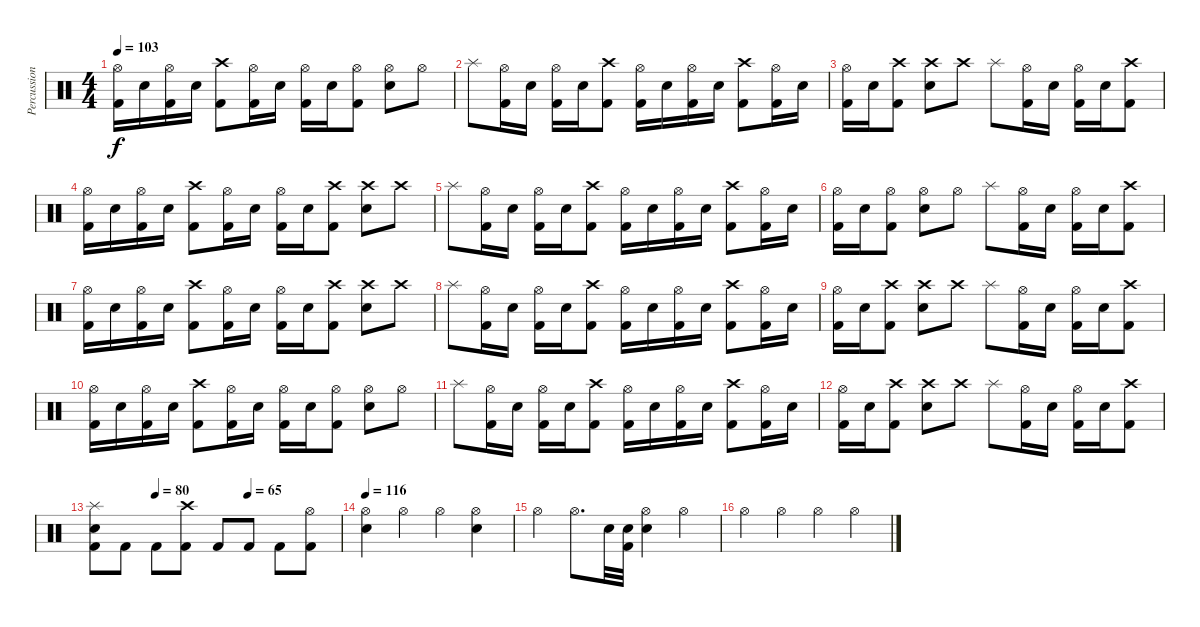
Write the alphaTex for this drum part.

\track ("Percussion" "Percussion") {instrument percussion}
\staff {score}
\articulation defaults
\ts (4 4)
\tempo 103
\clef neutral
\ks c
("Kick (hit) 2" "Hi-Hat (open)").16{dy f} "Snare (hit) 2".16 ("Kick (hit) 2" "Hi-Hat (open)").16 "Snare (hit) 2".16 ("Kick (hit) 2" "Crash high (hit)").8 ("Kick (hit) 2" "Hi-Hat (open)").16 "Snare (hit) 2".16 ("Kick (hit) 2" "Hi-Hat (open)").16 "Snare (hit) 2".16 ("Kick (hit) 2" "Hi-Hat (open)").8 ("Snare (hit) 2" "Hi-Hat (open)").8 "Hi-Hat (open)".8 |
"Splash (hit)".8 ("Kick (hit) 2" "Hi-Hat (open)").16 "Snare (hit) 2".16 ("Kick (hit) 2" "Hi-Hat (open)").16 "Snare (hit) 2".16 ("Kick (hit) 2" "Crash high (hit)").8 ("Kick (hit) 2" "Hi-Hat (open)").16 "Snare (hit) 2".16 ("Kick (hit) 2" "Hi-Hat (open)").16 "Snare (hit) 2".16 ("Kick (hit) 2" "Crash high (hit)").8 ("Kick (hit) 2" "Hi-Hat (open)").16 "Snare (hit) 2".16 |
("Kick (hit) 2" "Hi-Hat (open)").16 "Snare (hit) 2".16 ("Kick (hit) 2" "Crash high (hit)").8 ("Snare (hit) 2" "Crash high (hit)").8 "Crash high (hit)".8 "Splash (hit)".8 ("Kick (hit) 2" "Hi-Hat (open)").16 "Snare (hit) 2".16 ("Kick (hit) 2" "Hi-Hat (open)").16 "Snare (hit) 2".16 ("Kick (hit) 2" "Crash high (hit)").8 |
("Kick (hit) 2" "Hi-Hat (open)").16 "Snare (hit) 2".16 ("Kick (hit) 2" "Hi-Hat (open)").16 "Snare (hit) 2".16 ("Kick (hit) 2" "Crash high (hit)").8 ("Kick (hit) 2" "Hi-Hat (open)").16 "Snare (hit) 2".16 ("Kick (hit) 2" "Hi-Hat (open)").16 "Snare (hit) 2".16 ("Kick (hit) 2" "Crash high (hit)").8 ("Snare (hit) 2" "Crash high (hit)").8 "Crash high (hit)".8 |
"Splash (hit)".8 ("Kick (hit) 2" "Hi-Hat (open)").16 "Snare (hit) 2".16 ("Kick (hit) 2" "Hi-Hat (open)").16 "Snare (hit) 2".16 ("Kick (hit) 2" "Crash high (hit)").8 ("Kick (hit) 2" "Hi-Hat (open)").16 "Snare (hit) 2".16 ("Kick (hit) 2" "Hi-Hat (open)").16 "Snare (hit) 2".16 ("Kick (hit) 2" "Crash high (hit)").8 ("Kick (hit) 2" "Hi-Hat (open)").16 "Snare (hit) 2".16 |
("Kick (hit) 2" "Hi-Hat (open)").16 "Snare (hit) 2".16 ("Kick (hit) 2" "Hi-Hat (open)").8 ("Snare (hit) 2" "Hi-Hat (open)").8 "Hi-Hat (open)".8 "Splash (hit)".8 ("Kick (hit) 2" "Hi-Hat (open)").16 "Snare (hit) 2".16 ("Kick (hit) 2" "Hi-Hat (open)").16 "Snare (hit) 2".16 ("Kick (hit) 2" "Crash high (hit)").8 |
("Kick (hit) 2" "Hi-Hat (open)").16 "Snare (hit) 2".16 ("Kick (hit) 2" "Hi-Hat (open)").16 "Snare (hit) 2".16 ("Kick (hit) 2" "Crash high (hit)").8 ("Kick (hit) 2" "Hi-Hat (open)").16 "Snare (hit) 2".16 ("Kick (hit) 2" "Hi-Hat (open)").16 "Snare (hit) 2".16 ("Kick (hit) 2" "Crash high (hit)").8 ("Snare (hit) 2" "Crash high (hit)").8 "Crash high (hit)".8 |
"Splash (hit)".8 ("Kick (hit) 2" "Hi-Hat (open)").16 "Snare (hit) 2".16 ("Kick (hit) 2" "Hi-Hat (open)").16 "Snare (hit) 2".16 ("Kick (hit) 2" "Crash high (hit)").8 ("Kick (hit) 2" "Hi-Hat (open)").16 "Snare (hit) 2".16 ("Kick (hit) 2" "Hi-Hat (open)").16 "Snare (hit) 2".16 ("Kick (hit) 2" "Crash high (hit)").8 ("Kick (hit) 2" "Hi-Hat (open)").16 "Snare (hit) 2".16 |
("Kick (hit) 2" "Hi-Hat (open)").16 "Snare (hit) 2".16 ("Kick (hit) 2" "Crash high (hit)").8 ("Snare (hit) 2" "Crash high (hit)").8 "Crash high (hit)".8 "Splash (hit)".8 ("Kick (hit) 2" "Hi-Hat (open)").16 "Snare (hit) 2".16 ("Kick (hit) 2" "Hi-Hat (open)").16 "Snare (hit) 2".16 ("Kick (hit) 2" "Crash high (hit)").8 |
("Kick (hit) 2" "Hi-Hat (open)").16 "Snare (hit) 2".16 ("Kick (hit) 2" "Hi-Hat (open)").16 "Snare (hit) 2".16 ("Kick (hit) 2" "Crash high (hit)").8 ("Kick (hit) 2" "Hi-Hat (open)").16 "Snare (hit) 2".16 ("Kick (hit) 2" "Hi-Hat (open)").16 "Snare (hit) 2".16 ("Kick (hit) 2" "Hi-Hat (open)").8 ("Snare (hit) 2" "Hi-Hat (open)").8 "Hi-Hat (open)".8 |
"Splash (hit)".8 ("Kick (hit) 2" "Hi-Hat (open)").16 "Snare (hit) 2".16 ("Kick (hit) 2" "Hi-Hat (open)").16 "Snare (hit) 2".16 ("Kick (hit) 2" "Crash high (hit)").8 ("Kick (hit) 2" "Hi-Hat (open)").16 "Snare (hit) 2".16 ("Kick (hit) 2" "Hi-Hat (open)").16 "Snare (hit) 2".16 ("Kick (hit) 2" "Crash high (hit)").8 ("Kick (hit) 2" "Hi-Hat (open)").16 "Snare (hit) 2".16 |
("Kick (hit) 2" "Hi-Hat (open)").16 "Snare (hit) 2".16 ("Kick (hit) 2" "Crash high (hit)").8 ("Snare (hit) 2" "Crash high (hit)").8 "Crash high (hit)".8 "Splash (hit)".8 ("Kick (hit) 2" "Hi-Hat (open)").16 "Snare (hit) 2".16 ("Kick (hit) 2" "Hi-Hat (open)").16 "Snare (hit) 2".16 ("Kick (hit) 2" "Crash high (hit)").8 |
\tempo (80 0.25)
\tempo (65 0.625)
("Kick (hit) 2" "Snare (hit) 2" "Splash (hit)").8 "Kick (hit) 2".8 "Kick (hit) 2".8 ("Kick (hit) 2" "Crash high (hit)").8 "Kick (hit) 2".8 "Kick (hit) 2".8 "Kick (hit) 2".8 ("Kick (hit) 2" "Hi-Hat (open)").8 |
\tempo 116
("Snare (hit) 2" "Hi-Hat (open)").4 "Hi-Hat (open)".4 "Hi-Hat (open)".4 ("Snare (hit) 2" "Hi-Hat (open)").4 |
"Hi-Hat (open)".4 "Hi-Hat (open)".8{d} "Snare (hit) 2".32 ("Kick (hit) 2" "Snare (hit) 2").32 ("Snare (hit) 2" "Hi-Hat (open)").4 "Hi-Hat (open)".4 |
"Hi-Hat (open)".4 "Hi-Hat (open)".4 "Hi-Hat (open)".4 "Hi-Hat (open)".4
